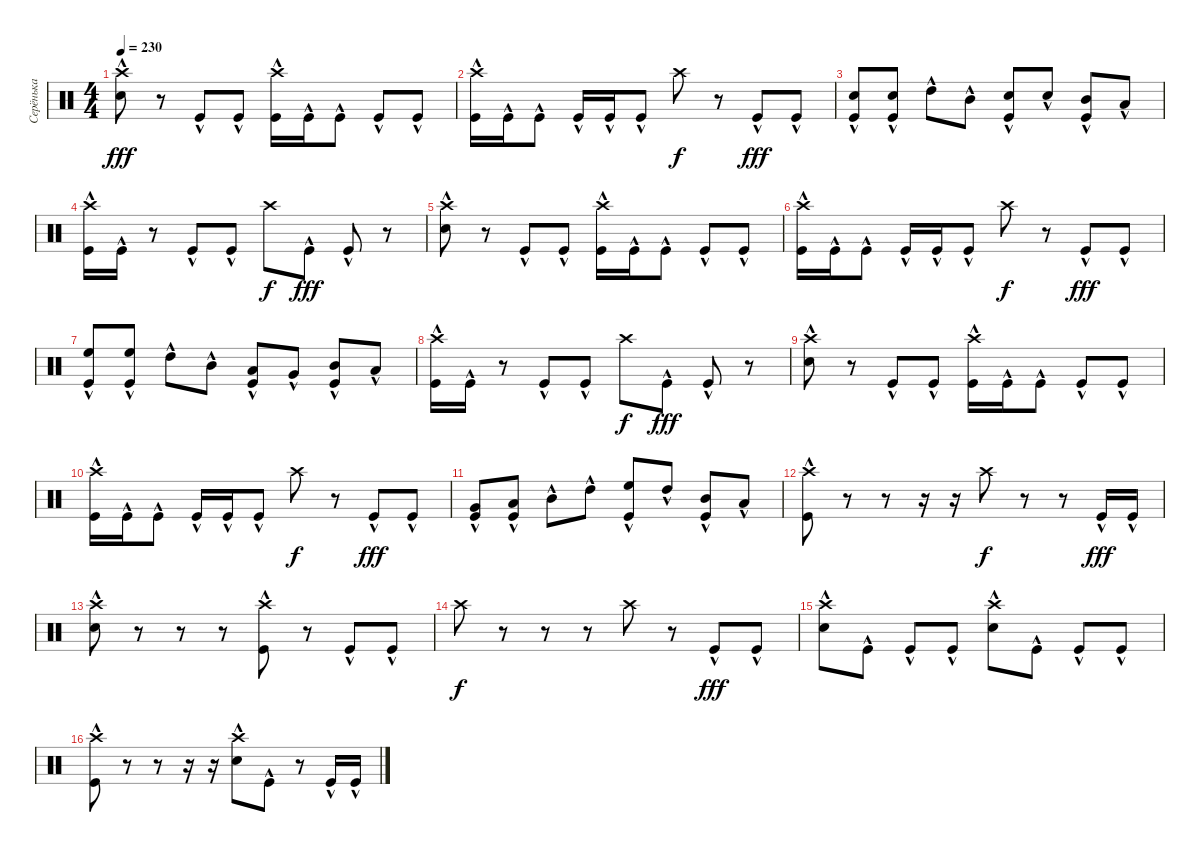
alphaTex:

\track ("Серёнька" "Серёнька") {instrument percussion}
\staff {score}
\articulation defaults
\ts (4 4)
\tempo 230
\clef neutral
\ks c
("Crash high (hit)" "Snare (hit) 2"{hac}).8{dy fff} r.8 "Kick (hit)"{hac}.8 "Kick (hit)"{hac}.8 ("Crash high (hit)" "Kick (hit)"{hac}).16 "Kick (hit)"{hac}.16 "Kick (hit)"{hac}.8 "Kick (hit)"{hac}.8 "Kick (hit)"{hac}.8 |
("Crash high (hit)" "Kick (hit)"{hac}).16 "Kick (hit)"{hac}.16 "Kick (hit)"{hac}.8 "Kick (hit)"{hac}.16 "Kick (hit)"{hac}.16 "Kick (hit)"{hac}.8 "Crash high (hit)".8{dy f} r.8 "Kick (hit)"{hac}.8{dy fff} "Kick (hit)"{hac}.8 |
("Snare (hit) 2"{hac} "Kick (hit)"{hac}).8 ("Snare (hit) 2"{hac} "Kick (hit)"{hac}).8 "High Tom (hit)"{hac}.8 "Mid Tom (hit)"{hac}.8 ("Snare (hit) 2"{hac} "Kick (hit)"{hac}).8 "Snare (hit) 2"{hac}.8 ("Mid Tom (hit)"{hac} "Kick (hit)"{hac}).8 "Low Tom (hit)"{hac}.8 |
("Crash high (hit)" "Kick (hit)"{hac}).16 "Kick (hit)"{hac}.16 r.8 "Kick (hit)"{hac}.8 "Kick (hit)"{hac}.8 "Crash high (hit)".8{dy f} "Kick (hit)"{hac}.8{dy fff} "Kick (hit)"{hac}.8 r.8 |
("Crash high (hit)" "Snare (hit) 2"{hac}).8 r.8 "Kick (hit)"{hac}.8 "Kick (hit)"{hac}.8 ("Crash high (hit)" "Kick (hit)"{hac}).16 "Kick (hit)"{hac}.16 "Kick (hit)"{hac}.8 "Kick (hit)"{hac}.8 "Kick (hit)"{hac}.8 |
("Crash high (hit)" "Kick (hit)"{hac}).16 "Kick (hit)"{hac}.16 "Kick (hit)"{hac}.8 "Kick (hit)"{hac}.16 "Kick (hit)"{hac}.16 "Kick (hit)"{hac}.8 "Crash high (hit)".8{dy f} r.8 "Kick (hit)"{hac}.8{dy fff} "Kick (hit)"{hac}.8 |
("High Floor Tom (hit)"{hac} "Kick (hit)"{hac}).8 ("High Floor Tom (hit)"{hac} "Kick (hit)"{hac}).8 "High Tom (hit)"{hac}.8 "Mid Tom (hit)"{hac}.8 ("Low Tom (hit)"{hac} "Kick (hit)"{hac}).8 "Very Low Tom (hit)"{hac}.8 ("Mid Tom (hit)"{hac} "Kick (hit)"{hac}).8 "Low Tom (hit)"{hac}.8 |
("Crash high (hit)" "Kick (hit)"{hac}).16 "Kick (hit)"{hac}.16 r.8 "Kick (hit)"{hac}.8 "Kick (hit)"{hac}.8 "Crash high (hit)".8{dy f} "Kick (hit)"{hac}.8{dy fff} "Kick (hit)"{hac}.8 r.8 |
("Crash high (hit)" "Snare (hit) 2"{hac}).8 r.8 "Kick (hit)"{hac}.8 "Kick (hit)"{hac}.8 ("Crash high (hit)" "Kick (hit)"{hac}).16 "Kick (hit)"{hac}.16 "Kick (hit)"{hac}.8 "Kick (hit)"{hac}.8 "Kick (hit)"{hac}.8 |
("Crash high (hit)" "Kick (hit)"{hac}).16 "Kick (hit)"{hac}.16 "Kick (hit)"{hac}.8 "Kick (hit)"{hac}.16 "Kick (hit)"{hac}.16 "Kick (hit)"{hac}.8 "Crash high (hit)".8{dy f} r.8 "Kick (hit)"{hac}.8{dy fff} "Kick (hit)"{hac}.8 |
("Very Low Tom (hit)"{hac} "Kick (hit)"{hac}).8 ("Low Tom (hit)"{hac} "Kick (hit)"{hac}).8 "Mid Tom (hit)"{hac}.8 "High Tom (hit)"{hac}.8 ("High Floor Tom (hit)"{hac} "Kick (hit)"{hac}).8 "High Tom (hit)"{hac}.8 ("Mid Tom (hit)"{hac} "Kick (hit)"{hac}).8 "Low Tom (hit)"{hac}.8 |
("Crash high (hit)"{hac} "Kick (hit)"{hac}).8 r.8 r.8 r.16 r.16 "Crash high (hit)".8{dy f} r.8 r.8 "Kick (hit)"{hac}.16{dy fff} "Kick (hit)"{hac}.16 |
("Crash high (hit)" "Snare (hit) 2"{hac}).8 r.8 r.8 r.8 ("Crash high (hit)" "Kick (hit)"{hac}).8 r.8 "Kick (hit)"{hac}.8 "Kick (hit)"{hac}.8 |
"Crash high (hit)".8{dy f} r.8 r.8 r.8 "Crash high (hit)".8 r.8 "Kick (hit)"{hac}.8{dy fff} "Kick (hit)"{hac}.8 |
("Crash high (hit)" "Snare (hit) 2"{hac}).8 "Kick (hit)"{hac}.8 "Kick (hit)"{hac}.8 "Kick (hit)"{hac}.8 ("Crash high (hit)" "Snare (hit) 2"{hac}).8 "Kick (hit)"{hac}.8 "Kick (hit)"{hac}.8 "Kick (hit)"{hac}.8 |
("Crash high (hit)"{hac} "Kick (hit)"{hac}).8 r.8 r.8 r.16 r.16 ("Crash high (hit)" "Snare (hit) 2"{hac}).8 "Kick (hit)"{hac}.8 r.8 "Kick (hit)"{hac}.16 "Kick (hit)"{hac}.16
